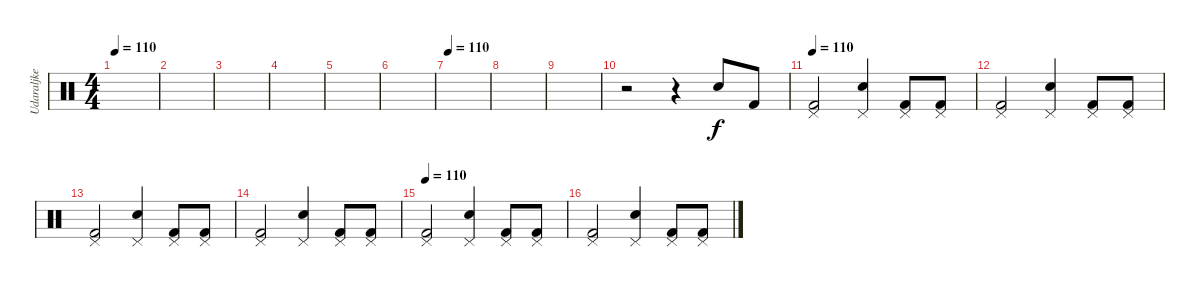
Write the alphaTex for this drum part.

\track ("Udaraljke" "Udaraljke") {instrument percussion}
\staff {score}
\articulation defaults
\ts (4 4)
\tempo 110
\clef neutral
\ks c
|
|
|
|
|
|
\tempo 110
|
|
|
r.2 r.4 "Snare (hit) 2".8 "Kick (hit) 2".8 |
\tempo 110
("Kick (hit) 2" "Pedal Hi-Hat (hit)").2 ("Snare (hit) 2" "Pedal Hi-Hat (hit)").4 ("Kick (hit) 2" "Pedal Hi-Hat (hit)").8 ("Kick (hit) 2" "Pedal Hi-Hat (hit)").8 |
("Kick (hit) 2" "Pedal Hi-Hat (hit)").2 ("Snare (hit) 2" "Pedal Hi-Hat (hit)").4 ("Kick (hit) 2" "Pedal Hi-Hat (hit)").8 ("Kick (hit) 2" "Pedal Hi-Hat (hit)").8 |
("Kick (hit) 2" "Pedal Hi-Hat (hit)").2 ("Snare (hit) 2" "Pedal Hi-Hat (hit)").4 ("Kick (hit) 2" "Pedal Hi-Hat (hit)").8 ("Kick (hit) 2" "Pedal Hi-Hat (hit)").8 |
("Kick (hit) 2" "Pedal Hi-Hat (hit)").2 ("Snare (hit) 2" "Pedal Hi-Hat (hit)").4 ("Kick (hit) 2" "Pedal Hi-Hat (hit)").8 ("Kick (hit) 2" "Pedal Hi-Hat (hit)").8 |
\tempo 110
("Kick (hit) 2" "Pedal Hi-Hat (hit)").2 ("Snare (hit) 2" "Pedal Hi-Hat (hit)").4 ("Kick (hit) 2" "Pedal Hi-Hat (hit)").8 ("Kick (hit) 2" "Pedal Hi-Hat (hit)").8 |
("Kick (hit) 2" "Pedal Hi-Hat (hit)").2 ("Snare (hit) 2" "Pedal Hi-Hat (hit)").4 ("Kick (hit) 2" "Pedal Hi-Hat (hit)").8 ("Kick (hit) 2" "Pedal Hi-Hat (hit)").8
